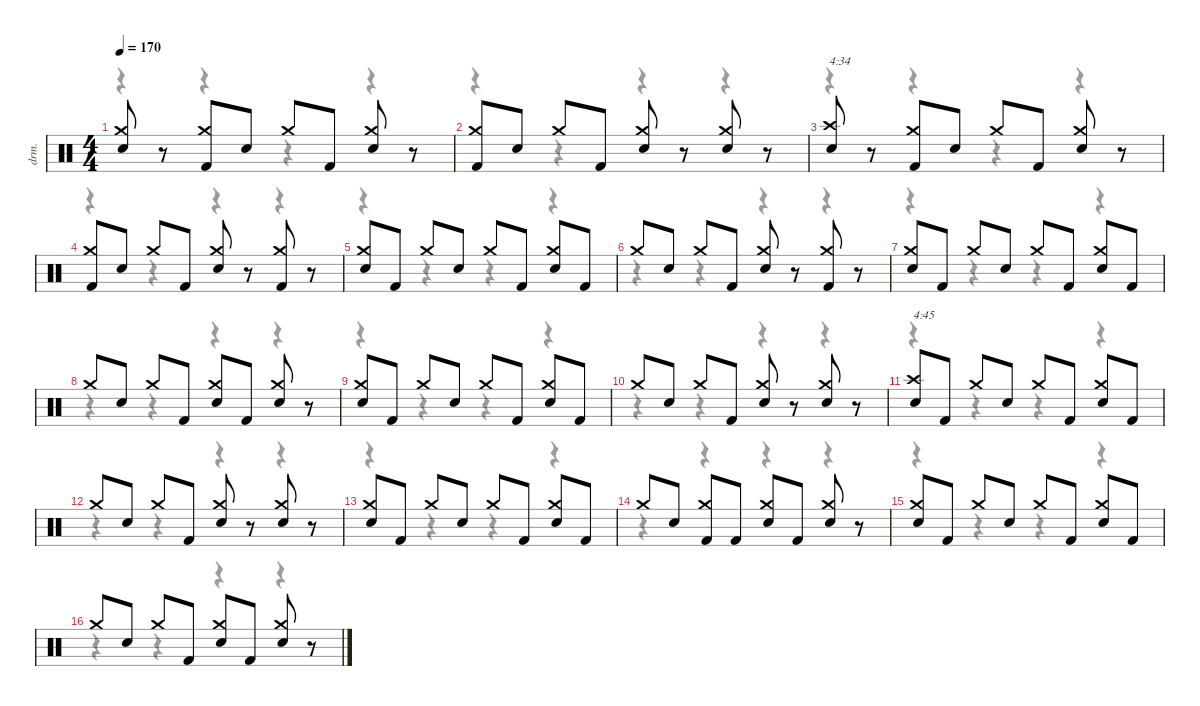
\defaultSystemsLayout 4
\hideDynamics
\bracketExtendMode nobrackets
\otherSystemsTrackNameOrientation horizontal
\track ("Drums" "drm.") {instrument percussion}
\staff {score}
\articulation defaults
\voice
\ts (4 4)
\tempo 170
\clef neutral
\ks c
("Crash medium (hit)" "Snare (hit) 2").8{dy f beam Up} r.8{beam Up} ("Crash medium (hit)" "Kick (hit) 2").8{beam Up} "Snare (hit) 2".8{beam Up} "Crash medium (hit)".8{beam Up} "Kick (hit) 2".8{beam Up} ("Crash medium (hit)" "Snare (hit) 2").8{beam Up} r.8{beam Up} |
("Crash medium (hit)" "Kick (hit) 2").8{beam Up} "Snare (hit) 2".8{beam Up} "Crash medium (hit)".8{beam Up} "Kick (hit) 2".8{beam Up} ("Crash medium (hit)" "Snare (hit) 2").8{beam Up} r.8{beam Up} ("Crash medium (hit)" "Snare (hit) 2").8{beam Up} r.8{beam Up} |
("Crash high (hit)" "Snare (hit) 2").8{txt "4:34" beam Up} r.8{beam Up} ("Crash medium (hit)" "Kick (hit) 2").8{beam Up} "Snare (hit) 2".8{beam Up} "Crash medium (hit)".8{beam Up} "Kick (hit) 2".8{beam Up} ("Crash medium (hit)" "Snare (hit) 2").8{beam Up} r.8{beam Up} |
("Crash medium (hit)" "Kick (hit) 2").8{beam Up} "Snare (hit) 2".8{beam Up} "Crash medium (hit)".8{beam Up} "Kick (hit) 2".8{beam Up} ("Crash medium (hit)" "Snare (hit) 2").8{beam Up} r.8{beam Up} ("Crash medium (hit)" "Kick (hit) 2").8{beam Up} r.8{beam Up} |
("Crash medium (hit)" "Snare (hit) 2").8{beam Up} "Kick (hit) 2".8{beam Up} "Crash medium (hit)".8{beam Up} "Snare (hit) 2".8{beam Up} "Crash medium (hit)".8{beam Up} "Kick (hit) 2".8{beam Up} ("Crash medium (hit)" "Snare (hit) 2").8{beam Up} "Kick (hit) 2".8{beam Up} |
"Crash medium (hit)".8{beam Up} "Snare (hit) 2".8{beam Up} "Crash medium (hit)".8{beam Up} "Kick (hit) 2".8{beam Up} ("Crash medium (hit)" "Snare (hit) 2").8{beam Up} r.8{beam Up} ("Crash medium (hit)" "Kick (hit) 2").8{beam Up} r.8{beam Up} |
("Crash medium (hit)" "Snare (hit) 2").8{beam Up} "Kick (hit) 2".8{beam Up} "Crash medium (hit)".8{beam Up} "Snare (hit) 2".8{beam Up} "Crash medium (hit)".8{beam Up} "Kick (hit) 2".8{beam Up} ("Crash medium (hit)" "Snare (hit) 2").8{beam Up} "Kick (hit) 2".8{beam Up} |
"Crash medium (hit)".8{beam Up} "Snare (hit) 2".8{beam Up} "Crash medium (hit)".8{beam Up} "Kick (hit) 2".8{beam Up} ("Crash medium (hit)" "Snare (hit) 2").8{beam Up} "Kick (hit) 2".8{beam Up} ("Crash medium (hit)" "Snare (hit) 2").8{beam Up} r.8{beam Up} |
("Crash medium (hit)" "Snare (hit) 2").8{beam Up} "Kick (hit) 2".8{beam Up} "Crash medium (hit)".8{beam Up} "Snare (hit) 2".8{beam Up} "Crash medium (hit)".8{beam Up} "Kick (hit) 2".8{beam Up} ("Crash medium (hit)" "Snare (hit) 2").8{beam Up} "Kick (hit) 2".8{beam Up} |
"Crash medium (hit)".8{beam Up} "Snare (hit) 2".8{beam Up} "Crash medium (hit)".8{beam Up} "Kick (hit) 2".8{beam Up} ("Crash medium (hit)" "Snare (hit) 2").8{beam Up} r.8{beam Up} ("Crash medium (hit)" "Snare (hit) 2").8{beam Up} r.8{beam Up} |
("Crash high (hit)" "Snare (hit) 2").8{txt "4:45" beam Up} "Kick (hit) 2".8{beam Up} "Crash medium (hit)".8{beam Up} "Snare (hit) 2".8{beam Up} "Crash medium (hit)".8{beam Up} "Kick (hit) 2".8{beam Up} ("Crash medium (hit)" "Snare (hit) 2").8{beam Up} "Kick (hit) 2".8{beam Up} |
"Crash medium (hit)".8{beam Up} "Snare (hit) 2".8{beam Up} "Crash medium (hit)".8{beam Up} "Kick (hit) 2".8{beam Up} ("Crash medium (hit)" "Snare (hit) 2").8{beam Up} r.8{beam Up} ("Crash medium (hit)" "Snare (hit) 2").8{beam Up} r.8{beam Up} |
("Crash medium (hit)" "Snare (hit) 2").8{beam Up} "Kick (hit) 2".8{beam Up} "Crash medium (hit)".8{beam Up} "Snare (hit) 2".8{beam Up} "Crash medium (hit)".8{beam Up} "Kick (hit) 2".8{beam Up} ("Crash medium (hit)" "Snare (hit) 2").8{beam Up} "Kick (hit) 2".8{beam Up} |
"Crash medium (hit)".8{beam Up} "Snare (hit) 2".8{beam Up} ("Crash medium (hit)" "Kick (hit) 2").8{beam Up} "Kick (hit) 2".8{beam Up} ("Crash medium (hit)" "Snare (hit) 2").8{beam Up} "Kick (hit) 2".8{beam Up} ("Crash medium (hit)" "Snare (hit) 2").8{beam Up} r.8{beam Up} |
("Crash medium (hit)" "Snare (hit) 2").8{beam Up} "Kick (hit) 2".8{beam Up} "Crash medium (hit)".8{beam Up} "Snare (hit) 2".8{beam Up} "Crash medium (hit)".8{beam Up} "Kick (hit) 2".8{beam Up} ("Crash medium (hit)" "Snare (hit) 2").8{beam Up} "Kick (hit) 2".8{beam Up} |
"Crash medium (hit)".8{beam Up} "Snare (hit) 2".8{beam Up} "Crash medium (hit)".8{beam Up} "Kick (hit) 2".8{beam Up} ("Crash medium (hit)" "Snare (hit) 2").8{beam Up} "Kick (hit) 2".8{beam Up} ("Crash medium (hit)" "Snare (hit) 2").8{beam Up} r.8{beam Up}
\voice
\clef neutral
\ottava regular
\simile none
\ks c
r.4{dy mf beam Down} r.4{beam Down} r.4{beam Down} r.4{beam Down} |
r.4{beam Down} r.4{beam Down} r.4{beam Down} r.4{beam Down} |
r.4{beam Down} r.4{beam Down} r.4{beam Down} r.4{beam Down} |
r.4{beam Down} r.4{beam Down} r.4{beam Down} r.4{beam Down} |
r.4{beam Down} r.4{beam Down} r.4{beam Down} r.4{beam Down} |
r.4{beam Down} r.4{beam Down} r.4{beam Down} r.4{beam Down} |
r.4{beam Down} r.4{beam Down} r.4{beam Down} r.4{beam Down} |
r.4{beam Down} r.4{beam Down} r.4{beam Down} r.4{beam Down} |
r.4{beam Down} r.4{beam Down} r.4{beam Down} r.4{beam Down} |
r.4{beam Down} r.4{beam Down} r.4{beam Down} r.4{beam Down} |
r.4{beam Down} r.4{beam Down} r.4{beam Down} r.4{beam Down} |
r.4{beam Down} r.4{beam Down} r.4{beam Down} r.4{beam Down} |
r.4{beam Down} r.4{beam Down} r.4{beam Down} r.4{beam Down} |
r.4{beam Down} r.4{beam Down} r.4{beam Down} r.4{beam Down} |
r.4{beam Down} r.4{beam Down} r.4{beam Down} r.4{beam Down} |
r.4{beam Down} r.4{beam Down} r.4{beam Down} r.4{beam Down}
